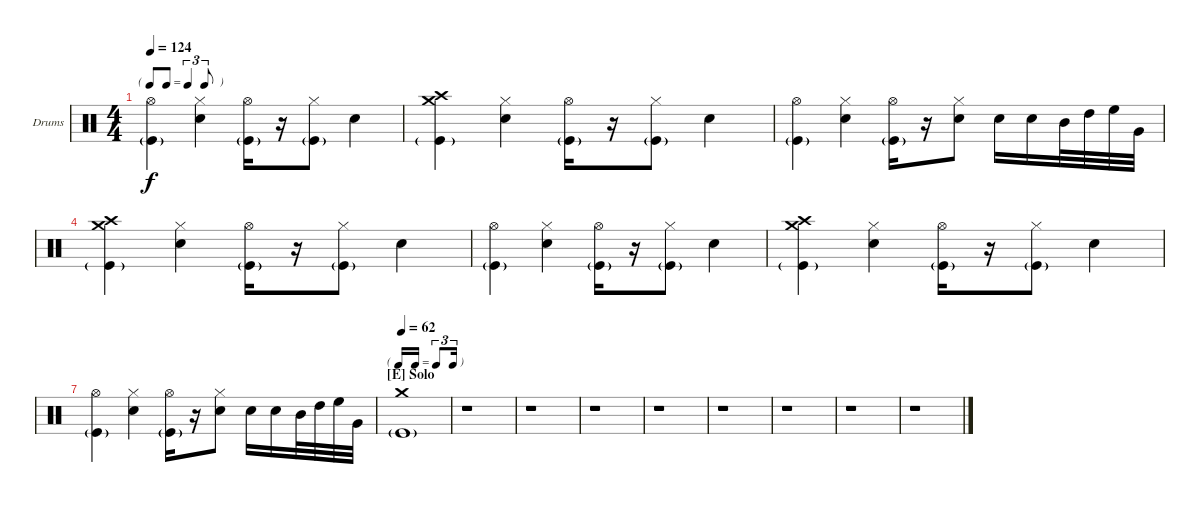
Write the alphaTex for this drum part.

\bracketExtendMode nobrackets
\firstSystemTrackNameOrientation horizontal
\otherSystemsTrackNameOrientation horizontal
\defaultBarNumberDisplay FirstOfSystem
\track ("Drumkit" "Drums") {instrument percussion}
\staff {score}
\articulation defaults
\ts (4 4)
\tf triplet8th
\tempo 124
\clef neutral
\ks c
("Kick (hit)"{g} "Hi-Hat (open)").4{dy f} ("Snare (hit) 2" "Hi-Hat (closed)").4 ("Kick (hit)"{g} "Hi-Hat (open)").16 r.16 ("Kick (hit)"{g} "Hi-Hat (closed)").8 "Snare (hit) 2".4 |
("Kick (hit)"{g} "Crash high (hit)" "Crash medium (hit)").4 ("Snare (hit) 2" "Hi-Hat (closed)").4 ("Kick (hit)"{g} "Hi-Hat (open)").16 r.16 ("Kick (hit)"{g} "Hi-Hat (closed)").8 "Snare (hit) 2".4 |
("Kick (hit)"{g} "Hi-Hat (open)").4 ("Snare (hit) 2" "Hi-Hat (closed)").4 ("Kick (hit)"{g} "Hi-Hat (open)").16 r.16 ("Snare (hit) 2" "Hi-Hat (closed)").8 "Snare (hit) 2".16 "Snare (hit) 2".16 "Mid Tom (hit)".32 "High Tom (hit)".32 "High Floor Tom (hit)".32 "Very Low Tom (hit)".32 |
("Kick (hit)"{g} "Crash high (hit)" "Crash medium (hit)").4 ("Snare (hit) 2" "Hi-Hat (closed)").4 ("Kick (hit)"{g} "Hi-Hat (open)").16 r.16 ("Kick (hit)"{g} "Hi-Hat (closed)").8 "Snare (hit) 2".4 |
("Kick (hit)"{g} "Hi-Hat (open)").4 ("Snare (hit) 2" "Hi-Hat (closed)").4 ("Kick (hit)"{g} "Hi-Hat (open)").16 r.16 ("Kick (hit)"{g} "Hi-Hat (closed)").8 "Snare (hit) 2".4 |
("Kick (hit)"{g} "Crash high (hit)" "Crash medium (hit)").4 ("Snare (hit) 2" "Hi-Hat (closed)").4 ("Kick (hit)"{g} "Hi-Hat (open)").16 r.16 ("Kick (hit)"{g} "Hi-Hat (closed)").8 "Snare (hit) 2".4 |
("Kick (hit)"{g} "Hi-Hat (open)").4 ("Snare (hit) 2" "Hi-Hat (closed)").4 ("Kick (hit)"{g} "Hi-Hat (open)").16 r.16 ("Snare (hit) 2" "Hi-Hat (closed)").8 "Snare (hit) 2".16 "Snare (hit) 2".16 "Mid Tom (hit)".32 "High Tom (hit)".32 "High Floor Tom (hit)".32 "Very Low Tom (hit)".32 |
\tf triplet16th
\section ("E" "Solo")
\tempo 62
("Kick (hit)"{g} "Crash medium (hit)").1 |
r.1 |
r.1 |
r.1 |
r.1 |
r.1 |
r.1 |
r.1 |
r.1
